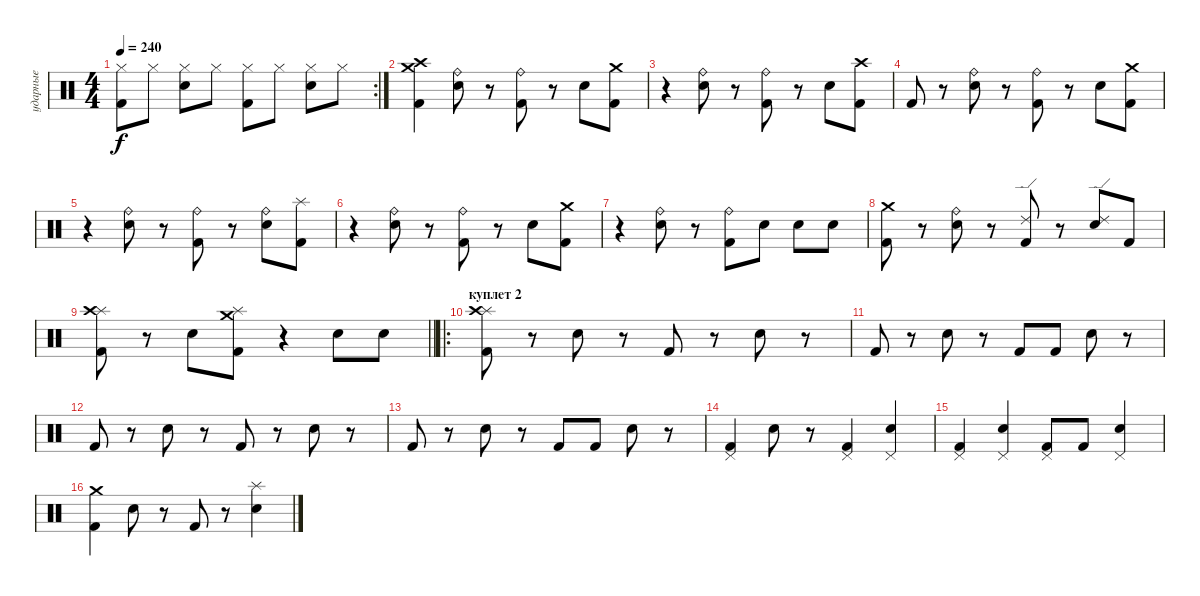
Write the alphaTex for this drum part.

\track ("ударные" "ударные") {instrument percussion}
\staff {score}
\articulation defaults
\rc 2
\ts (4 4)
\tempo 240
\clef neutral
\ks c
("Hi-Hat (closed)" "Kick (hit) 2").8{dy f} "Hi-Hat (closed)".8 ("Hi-Hat (closed)" "Electric Snare (hit)").8 "Hi-Hat (closed)".8 ("Hi-Hat (closed)" "Kick (hit) 2").8 "Hi-Hat (closed)".8 ("Hi-Hat (closed)" "Electric Snare (hit)").8 "Hi-Hat (closed)".8 |
("Crash medium (hit)" "Crash high (hit)" "Kick (hit) 2").4 ("Ride (bell)" "Electric Snare (hit)").8 r.8 ("Ride (bell)" "Kick (hit) 2").8 r.8 "Electric Snare (hit)".8 ("Crash medium (hit)" "Kick (hit) 2").8 |
r.4 ("Ride (bell)" "Electric Snare (hit)").8 r.8 ("Ride (bell)" "Kick (hit) 2").8 r.8 "Electric Snare (hit)".8 ("Crash high (hit)" "Kick (hit) 2").8 |
"Kick (hit) 2".8 r.8 ("Ride (bell)" "Electric Snare (hit)").8 r.8 ("Ride (bell)" "Kick (hit) 2").8 r.8 "Electric Snare (hit)".8 ("Crash medium (hit)" "Kick (hit) 2").8 |
r.4 ("Ride (bell)" "Electric Snare (hit)").8 r.8 ("Ride (bell)" "Kick (hit) 2").8 r.8 ("Ride (bell)" "Electric Snare (hit)").8 ("Splash (hit)" "Kick (hit) 2").8 |
r.4 ("Ride (bell)" "Electric Snare (hit)").8 r.8 ("Ride (bell)" "Kick (hit) 2").8 r.8 "Electric Snare (hit)".8 ("Crash medium (hit)" "Kick (hit) 2").8 |
r.4 ("Ride (bell)" "Electric Snare (hit)").8 r.8 ("Ride (bell)" "Kick (hit) 2").8 "Snare (hit) 2".8 "Snare (hit) 2".8 "Snare (hit) 2".8 |
("Crash medium (hit)" "Kick (hit) 2").8 r.8 ("Ride (bell)" "Electric Snare (hit)").8 r.8 ("Ride (edge) 2" "Kick (hit) 2").8 r.8 ("Ride (edge) 2" "Electric Snare (hit)").8 "Kick (hit) 2".8 |
\barLineRight lightlight
("Splash (hit)" "Crash high (hit)" "Kick (hit) 2").8 r.8 "Electric Snare (hit)".8 ("Splash (hit)" "Crash medium (hit)" "Kick (hit) 2").8 r.4 "Electric Snare (hit)".8 "Electric Snare (hit)".8 |
\ro
\section ("" "куплет 2")
("Splash (hit)" "Crash high (hit)" "Kick (hit) 2").8 r.8 "Electric Snare (hit)".8 r.8 "Kick (hit) 2".8 r.8 "Electric Snare (hit)".8 r.8 |
"Kick (hit) 2".8 r.8 "Electric Snare (hit)".8 r.8 "Kick (hit) 2".8 "Kick (hit) 2".8 "Electric Snare (hit)".8 r.8 |
"Kick (hit) 2".8 r.8 "Electric Snare (hit)".8 r.8 "Kick (hit) 2".8 r.8 "Electric Snare (hit)".8 r.8 |
"Kick (hit) 2".8 r.8 "Electric Snare (hit)".8 r.8 "Kick (hit) 2".8 "Kick (hit) 2".8 "Electric Snare (hit)".8 r.8 |
("Pedal Hi-Hat (hit)" "Kick (hit) 2").4 "Electric Snare (hit)".8 r.8 ("Pedal Hi-Hat (hit)" "Kick (hit) 2").4 ("Pedal Hi-Hat (hit)" "Electric Snare (hit)").4 |
("Pedal Hi-Hat (hit)" "Kick (hit) 2").4 ("Pedal Hi-Hat (hit)" "Electric Snare (hit)").4 ("Pedal Hi-Hat (hit)" "Kick (hit) 2").8 "Kick (hit) 2".8 ("Pedal Hi-Hat (hit)" "Electric Snare (hit)").4 |
("Crash medium (hit)" "Kick (hit) 2").4 "Electric Snare (hit)".8 r.8 "Kick (hit) 2".8 r.8 ("Splash (hit)" "Electric Snare (hit)").4
